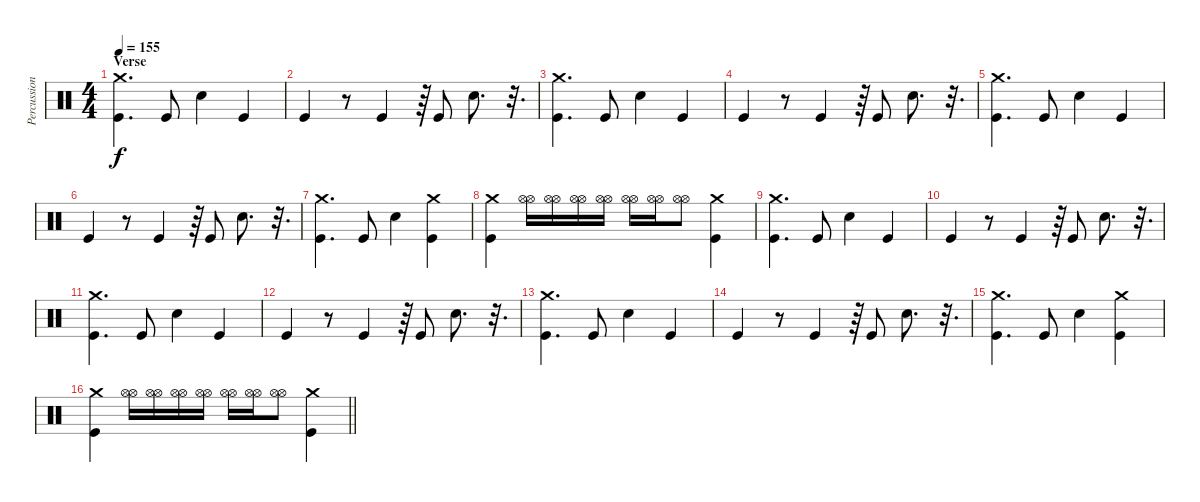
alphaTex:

\track ("Percussion" "Percussion") {instrument percussion}
\staff {score}
\articulation defaults
\ts (4 4)
\section ("" "Verse")
\tempo 155
\clef neutral
\ks c
("Kick (hit)" "Crash medium (hit)").4{d dy f} "Kick (hit)".8 "Electric Snare (hit)".4 "Kick (hit)".4 |
"Kick (hit)".4 r.8 "Kick (hit)".4 r.64 "Kick (hit)".8 "Electric Snare (hit)".8{d} r.32{d} |
("Kick (hit)" "Crash medium (hit)").4{d} "Kick (hit)".8 "Electric Snare (hit)".4 "Kick (hit)".4 |
"Kick (hit)".4 r.8 "Kick (hit)".4 r.64 "Kick (hit)".8 "Electric Snare (hit)".8{d} r.32{d} |
("Kick (hit)" "Crash medium (hit)").4{d} "Kick (hit)".8 "Electric Snare (hit)".4 "Kick (hit)".4 |
"Kick (hit)".4 r.8 "Kick (hit)".4 r.64 "Kick (hit)".8 "Electric Snare (hit)".8{d} r.32{d} |
("Kick (hit)" "Crash medium (hit)").4{d} "Kick (hit)".8 "Electric Snare (hit)".4 ("Kick (hit)" "Crash medium (hit)").4 |
("Kick (hit)" "Crash medium (hit)").4 ("Hi-Hat (open)" "Hi-Hat (open)").16 ("Hi-Hat (open)" "Hi-Hat (open)").16 ("Hi-Hat (open)" "Hi-Hat (open)").16 ("Hi-Hat (open)" "Hi-Hat (open)").16 ("Hi-Hat (open)" "Hi-Hat (open)").16 ("Hi-Hat (open)" "Hi-Hat (open)").16 ("Hi-Hat (open)" "Hi-Hat (open)").8 ("Kick (hit)" "Crash medium (hit)").4 |
("Kick (hit)" "Crash medium (hit)").4{d} "Kick (hit)".8 "Electric Snare (hit)".4 "Kick (hit)".4 |
"Kick (hit)".4 r.8 "Kick (hit)".4 r.64 "Kick (hit)".8 "Electric Snare (hit)".8{d} r.32{d} |
("Kick (hit)" "Crash medium (hit)").4{d} "Kick (hit)".8 "Electric Snare (hit)".4 "Kick (hit)".4 |
"Kick (hit)".4 r.8 "Kick (hit)".4 r.64 "Kick (hit)".8 "Electric Snare (hit)".8{d} r.32{d} |
("Kick (hit)" "Crash medium (hit)").4{d} "Kick (hit)".8 "Electric Snare (hit)".4 "Kick (hit)".4 |
"Kick (hit)".4 r.8 "Kick (hit)".4 r.64 "Kick (hit)".8 "Electric Snare (hit)".8{d} r.32{d} |
("Kick (hit)" "Crash medium (hit)").4{d} "Kick (hit)".8 "Electric Snare (hit)".4 ("Kick (hit)" "Crash medium (hit)").4 |
\barLineRight lightlight
("Kick (hit)" "Crash medium (hit)").4 ("Hi-Hat (open)" "Hi-Hat (open)").16 ("Hi-Hat (open)" "Hi-Hat (open)").16 ("Hi-Hat (open)" "Hi-Hat (open)").16 ("Hi-Hat (open)" "Hi-Hat (open)").16 ("Hi-Hat (open)" "Hi-Hat (open)").16 ("Hi-Hat (open)" "Hi-Hat (open)").16 ("Hi-Hat (open)" "Hi-Hat (open)").8 ("Kick (hit)" "Crash medium (hit)").4
